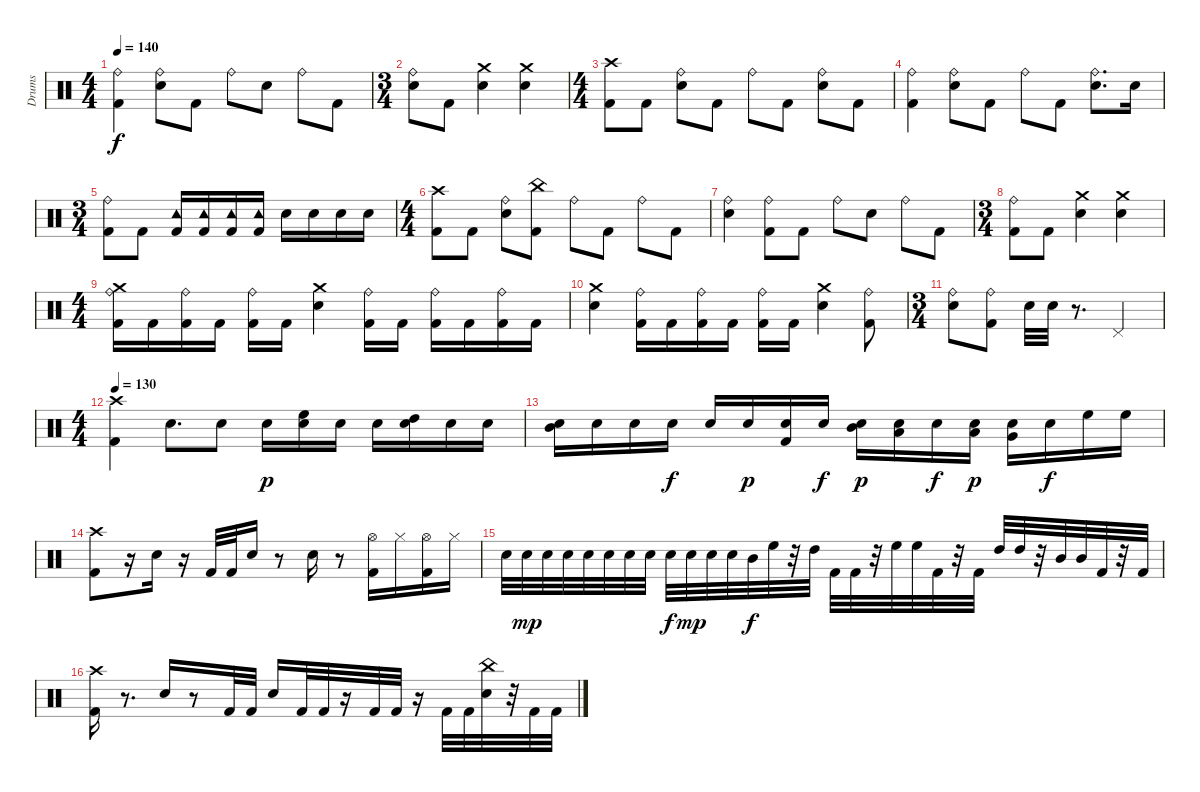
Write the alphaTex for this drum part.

\track ("Drums" "Drums") {instrument percussion}
\staff {score}
\articulation defaults
\ts (4 4)
\tempo 140
\clef neutral
\ks c
("Kick (hit) 2" "Ride (bell)").4{dy f} ("Electric Snare (hit)" "Ride (bell)").8 "Kick (hit) 2".8 "Ride (bell)".8 "Electric Snare (hit)".8 "Ride (bell)".8 "Kick (hit) 2".8 |
\ts (3 4)
("Ride (bell)" "Electric Snare (hit)").8 "Kick (hit) 2".8 ("Electric Snare (hit)" "Crash medium (hit)").4 ("Electric Snare (hit)" "Crash medium (hit)").4 |
\ts (4 4)
("Crash high (hit)" "Kick (hit) 2").8 "Kick (hit) 2".8 ("Electric Snare (hit)" "Ride (bell)").8 "Kick (hit) 2".8 "Ride (bell)".8 "Kick (hit) 2".8 ("Electric Snare (hit)" "Ride (bell)").8 "Kick (hit) 2".8 |
("Kick (hit) 2" "Ride (bell)").4 ("Electric Snare (hit)" "Ride (bell)").8 "Kick (hit) 2".8 "Ride (bell)".8 "Kick (hit) 2".8 ("Electric Snare (hit)" "Ride (bell)").8{d} "Electric Snare (hit)".16 |
\ts (3 4)
("Ride (bell)" "Kick (hit) 2").8 "Kick (hit) 2".8 ("Kick (hit) 2" "Tambourine (hit)").16 ("Tambourine (hit)" "Kick (hit) 2").16 ("Tambourine (hit)" "Kick (hit) 2").16 ("Tambourine (hit)" "Kick (hit) 2").16 "Electric Snare (hit)".16 "Electric Snare (hit)".16 "Electric Snare (hit)".16 "Electric Snare (hit)".16 |
\ts (4 4)
("Crash high (hit)" "Kick (hit) 2").8 "Kick (hit) 2".8 ("Electric Snare (hit)" "Ride (bell)").8 ("Kick (hit) 2" "China (hit)").8 "Ride (bell)".8 "Kick (hit) 2".8 "Ride (bell)".8 "Kick (hit) 2".8 |
("Ride (bell)" "Electric Snare (hit)").4 ("Ride (bell)" "Kick (hit) 2").8 "Kick (hit) 2".8 "Ride (bell)".8 "Electric Snare (hit)".8 "Ride (bell)".8 "Kick (hit) 2".8 |
\ts (3 4)
("Kick (hit) 2" "Ride (bell)").8 "Kick (hit) 2".8 ("Electric Snare (hit)" "Crash medium (hit)").4 ("Crash medium (hit)" "Electric Snare (hit)").4 |
\ts (4 4)
("Crash medium (hit)" "Kick (hit) 2" "Ride (bell)").16 "Kick (hit) 2".16 ("Kick (hit) 2" "Ride (bell)").16 "Kick (hit) 2".16 ("Kick (hit) 2" "Ride (bell)").16 "Kick (hit) 2".16 ("Electric Snare (hit)" "Crash medium (hit)").4 ("Ride (bell)" "Kick (hit) 2").16 "Kick (hit) 2".16 ("Kick (hit) 2" "Ride (bell)").16 "Kick (hit) 2".16 ("Kick (hit) 2" "Ride (bell)").16 "Kick (hit) 2".16 |
("Electric Snare (hit)" "Crash medium (hit)").4 ("Kick (hit) 2" "Ride (bell)").16 "Kick (hit) 2".16 ("Kick (hit) 2" "Ride (bell)").16 "Kick (hit) 2".16 ("Kick (hit) 2" "Ride (bell)").16 "Kick (hit) 2".16 ("Electric Snare (hit)" "Crash medium (hit)").4 ("Kick (hit) 2" "Ride (bell)").8 |
\ts (3 4)
("Electric Snare (hit)" "Ride (bell)").8 ("Kick (hit) 2" "Ride (bell)").8 "Electric Snare (hit)".32 "Electric Snare (hit)".32 r.8{d} "Pedal Hi-Hat (hit)".4 |
\ts (4 4)
\tempo 130
("Crash high (hit)" "Kick (hit) 2").4 "Electric Snare (hit)".8{d} "Electric Snare (hit)".8 "Electric Snare (hit)".16{dy p} ("High Floor Tom (hit)" "Electric Snare (hit)").16 "Electric Snare (hit)".16 "Electric Snare (hit)".16 ("High Tom (hit)" "Electric Snare (hit)").16 "Electric Snare (hit)".16 "Electric Snare (hit)".16 |
("Mid Tom (hit)" "Electric Snare (hit)").16 "Electric Snare (hit)".16 "Electric Snare (hit)".16 "Electric Snare (hit)".16{dy f} "Electric Snare (hit)".16 "Electric Snare (hit)".16{dy p} ("Kick (hit) 2" "Electric Snare (hit)").16 "Electric Snare (hit)".16{dy f} ("Mid Tom (hit)" "Electric Snare (hit)").16{dy p} ("Low Tom (hit)" "Electric Snare (hit)").16 "Electric Snare (hit)".16{dy f} ("Low Tom (hit)" "Electric Snare (hit)").16{dy p} ("Very Low Tom (hit)" "Electric Snare (hit)").16 "Electric Snare (hit)".16{dy f} "High Floor Tom (hit)".16 "High Floor Tom (hit)".16 |
("Crash high (hit)" "Kick (hit) 2").8 r.16 "Electric Snare (hit)".16 r.16 "Kick (hit) 2".32 "Kick (hit) 2".32 "Electric Snare (hit)".16 r.8 "Electric Snare (hit)".16 r.8 ("Kick (hit) 2" "Hi-Hat (open)").16 "Hi-Hat (closed)".16 ("Kick (hit) 2" "Hi-Hat (open)").16 "Hi-Hat (closed)".16 |
"Electric Snare (hit)".32 "Electric Snare (hit)".32{dy mp} "Electric Snare (hit)".32 "Electric Snare (hit)".32 "Electric Snare (hit)".32 "Electric Snare (hit)".32 "Electric Snare (hit)".32 "Electric Snare (hit)".32 "Electric Snare (hit)".32{dy f} "Electric Snare (hit)".32{dy mp} "Electric Snare (hit)".32 "Electric Snare (hit)".32 "Mid Tom (hit)".32{dy f} "High Floor Tom (hit)".32 r.32 "High Tom (hit)".32 "Kick (hit) 2".32 "Kick (hit) 2".32 r.32 "High Floor Tom (hit)".32 "High Floor Tom (hit)".32 "Kick (hit) 2".32 r.32 "Kick (hit) 2".32 "High Tom (hit)".32 "High Tom (hit)".32 r.32 "Mid Tom (hit)".32 "Mid Tom (hit)".32 "Kick (hit) 2".32 r.32 "Kick (hit) 2".32 |
("Crash high (hit)" "Kick (hit) 2").16 r.8{d} "Electric Snare (hit)".16 r.8 "Kick (hit) 2".32 "Kick (hit) 2".32 "Electric Snare (hit)".16 "Kick (hit) 2".32 "Kick (hit) 2".32 r.16 "Kick (hit) 2".32 "Kick (hit) 2".32 r.16 "Kick (hit) 2".32 "Kick (hit) 2".32 ("China (hit)" "Electric Snare (hit)").32 r.32 "Kick (hit) 2".32 "Kick (hit) 2".32
